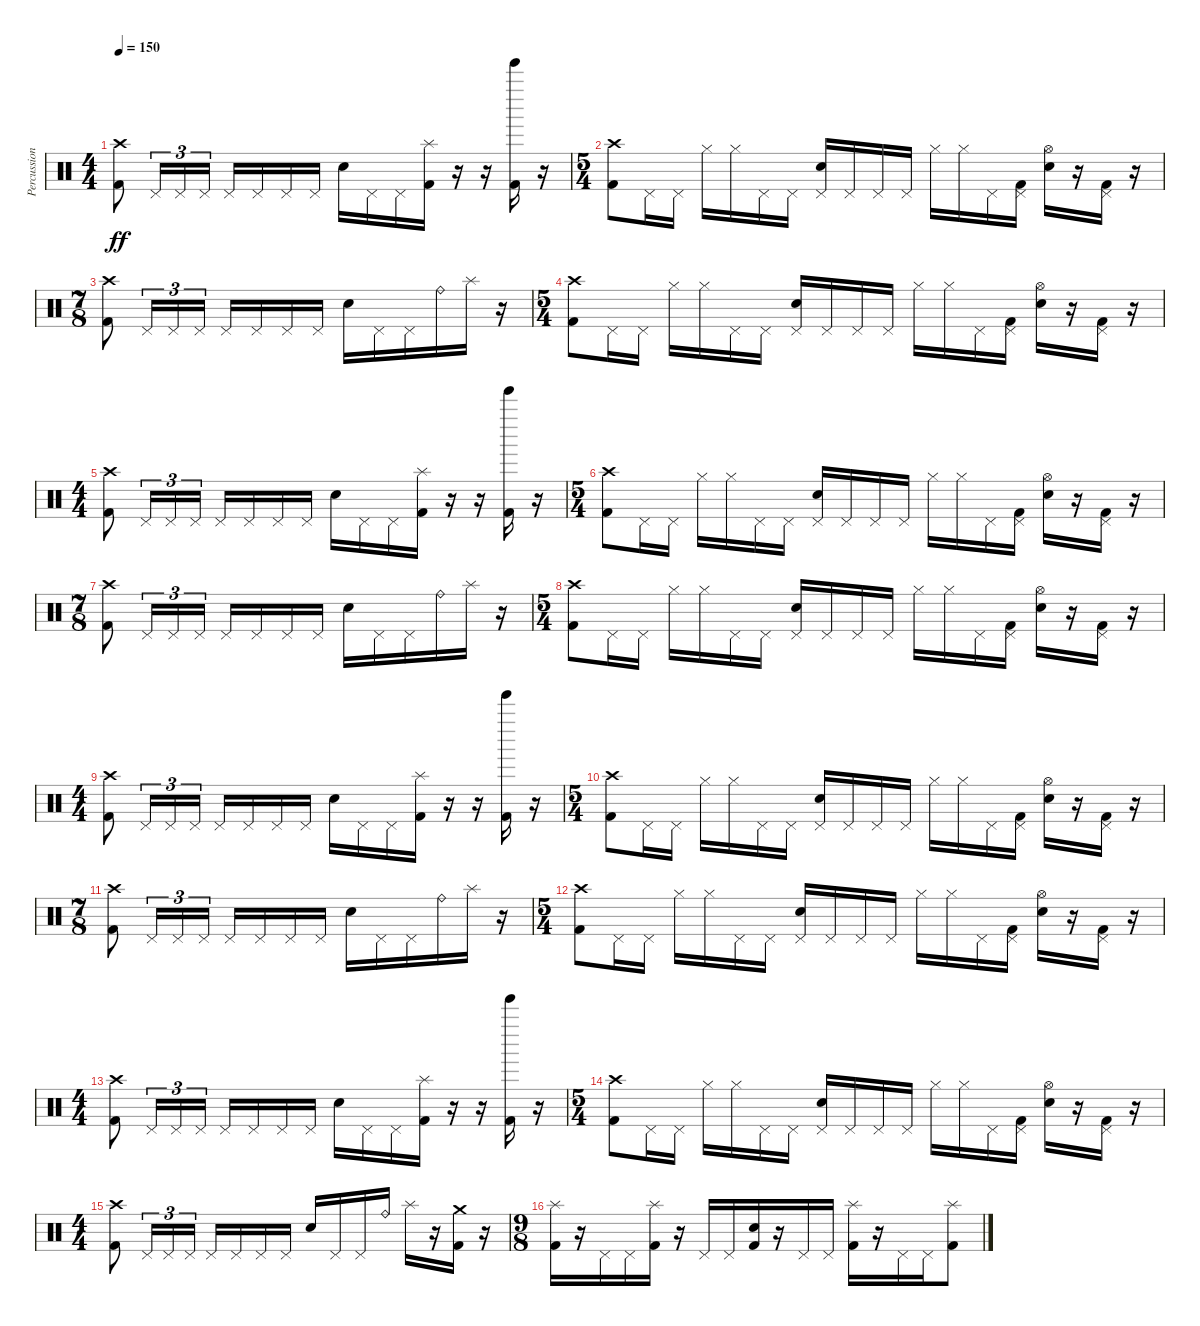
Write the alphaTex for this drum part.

\track ("Percussion" "Percussion") {instrument percussion}
\staff {score}
\articulation defaults
\ts (4 4)
\tempo 150
\clef neutral
\ks c
("Crash high (hit)" "Kick (hit) 2").8{dy ff} "Pedal Hi-Hat (hit)".16{tu (3 2)} "Pedal Hi-Hat (hit)".16{tu (3 2)} "Pedal Hi-Hat (hit)".16{tu (3 2)} "Pedal Hi-Hat (hit)".16 "Pedal Hi-Hat (hit)".16 "Pedal Hi-Hat (hit)".16 "Pedal Hi-Hat (hit)".16 "Electric Snare (hit)".16 "Pedal Hi-Hat (hit)".16 "Pedal Hi-Hat (hit)".16 ("Splash (hit)" "Kick (hit) 2").16 r.16 r.16 ("Tinkle Bell (hit)" "Kick (hit) 2").16 r.16 |
\ts (5 4)
("Crash high (hit)" "Kick (hit) 2").8 "Pedal Hi-Hat (hit)".16 "Pedal Hi-Hat (hit)".16 "Hi-Hat (closed)".16 "Hi-Hat (closed)".16 "Pedal Hi-Hat (hit)".16 "Pedal Hi-Hat (hit)".16 ("Pedal Hi-Hat (hit)" "Electric Snare (hit)").16 "Pedal Hi-Hat (hit)".16 "Pedal Hi-Hat (hit)".16 "Pedal Hi-Hat (hit)".16 "Hi-Hat (closed)".16 "Hi-Hat (closed)".16 "Pedal Hi-Hat (hit)".16 ("Pedal Hi-Hat (hit)" "Kick (hit) 2").16 ("Hi-Hat (open)" "Electric Snare (hit)").16 r.16 ("Pedal Hi-Hat (hit)" "Kick (hit) 2").16 r.16 |
\ts (7 8)
("Crash high (hit)" "Kick (hit) 2").8 "Pedal Hi-Hat (hit)".16{tu (3 2)} "Pedal Hi-Hat (hit)".16{tu (3 2)} "Pedal Hi-Hat (hit)".16{tu (3 2)} "Pedal Hi-Hat (hit)".16 "Pedal Hi-Hat (hit)".16 "Pedal Hi-Hat (hit)".16 "Pedal Hi-Hat (hit)".16 "Electric Snare (hit)".16 "Pedal Hi-Hat (hit)".16 "Pedal Hi-Hat (hit)".16 "Ride (bell)".16 "Splash (hit)".16 r.16 |
\ts (5 4)
("Crash high (hit)" "Kick (hit) 2").8 "Pedal Hi-Hat (hit)".16 "Pedal Hi-Hat (hit)".16 "Hi-Hat (closed)".16 "Hi-Hat (closed)".16 "Pedal Hi-Hat (hit)".16 "Pedal Hi-Hat (hit)".16 ("Pedal Hi-Hat (hit)" "Electric Snare (hit)").16 "Pedal Hi-Hat (hit)".16 "Pedal Hi-Hat (hit)".16 "Pedal Hi-Hat (hit)".16 "Hi-Hat (closed)".16 "Hi-Hat (closed)".16 "Pedal Hi-Hat (hit)".16 ("Pedal Hi-Hat (hit)" "Kick (hit) 2").16 ("Hi-Hat (open)" "Electric Snare (hit)").16 r.16 ("Pedal Hi-Hat (hit)" "Kick (hit) 2").16 r.16 |
\ts (4 4)
("Crash high (hit)" "Kick (hit) 2").8 "Pedal Hi-Hat (hit)".16{tu (3 2)} "Pedal Hi-Hat (hit)".16{tu (3 2)} "Pedal Hi-Hat (hit)".16{tu (3 2)} "Pedal Hi-Hat (hit)".16 "Pedal Hi-Hat (hit)".16 "Pedal Hi-Hat (hit)".16 "Pedal Hi-Hat (hit)".16 "Electric Snare (hit)".16 "Pedal Hi-Hat (hit)".16 "Pedal Hi-Hat (hit)".16 ("Splash (hit)" "Kick (hit) 2").16 r.16 r.16 ("Tinkle Bell (hit)" "Kick (hit) 2").16 r.16 |
\ts (5 4)
("Crash high (hit)" "Kick (hit) 2").8 "Pedal Hi-Hat (hit)".16 "Pedal Hi-Hat (hit)".16 "Hi-Hat (closed)".16 "Hi-Hat (closed)".16 "Pedal Hi-Hat (hit)".16 "Pedal Hi-Hat (hit)".16 ("Pedal Hi-Hat (hit)" "Electric Snare (hit)").16 "Pedal Hi-Hat (hit)".16 "Pedal Hi-Hat (hit)".16 "Pedal Hi-Hat (hit)".16 "Hi-Hat (closed)".16 "Hi-Hat (closed)".16 "Pedal Hi-Hat (hit)".16 ("Pedal Hi-Hat (hit)" "Kick (hit) 2").16 ("Hi-Hat (open)" "Electric Snare (hit)").16 r.16 ("Pedal Hi-Hat (hit)" "Kick (hit) 2").16 r.16 |
\ts (7 8)
("Crash high (hit)" "Kick (hit) 2").8 "Pedal Hi-Hat (hit)".16{tu (3 2)} "Pedal Hi-Hat (hit)".16{tu (3 2)} "Pedal Hi-Hat (hit)".16{tu (3 2)} "Pedal Hi-Hat (hit)".16 "Pedal Hi-Hat (hit)".16 "Pedal Hi-Hat (hit)".16 "Pedal Hi-Hat (hit)".16 "Electric Snare (hit)".16 "Pedal Hi-Hat (hit)".16 "Pedal Hi-Hat (hit)".16 "Ride (bell)".16 "Splash (hit)".16 r.16 |
\ts (5 4)
("Crash high (hit)" "Kick (hit) 2").8 "Pedal Hi-Hat (hit)".16 "Pedal Hi-Hat (hit)".16 "Hi-Hat (closed)".16 "Hi-Hat (closed)".16 "Pedal Hi-Hat (hit)".16 "Pedal Hi-Hat (hit)".16 ("Pedal Hi-Hat (hit)" "Electric Snare (hit)").16 "Pedal Hi-Hat (hit)".16 "Pedal Hi-Hat (hit)".16 "Pedal Hi-Hat (hit)".16 "Hi-Hat (closed)".16 "Hi-Hat (closed)".16 "Pedal Hi-Hat (hit)".16 ("Pedal Hi-Hat (hit)" "Kick (hit) 2").16 ("Hi-Hat (open)" "Electric Snare (hit)").16 r.16 ("Pedal Hi-Hat (hit)" "Kick (hit) 2").16 r.16 |
\ts (4 4)
("Crash high (hit)" "Kick (hit) 2").8 "Pedal Hi-Hat (hit)".16{tu (3 2)} "Pedal Hi-Hat (hit)".16{tu (3 2)} "Pedal Hi-Hat (hit)".16{tu (3 2)} "Pedal Hi-Hat (hit)".16 "Pedal Hi-Hat (hit)".16 "Pedal Hi-Hat (hit)".16 "Pedal Hi-Hat (hit)".16 "Electric Snare (hit)".16 "Pedal Hi-Hat (hit)".16 "Pedal Hi-Hat (hit)".16 ("Splash (hit)" "Kick (hit) 2").16 r.16 r.16 ("Tinkle Bell (hit)" "Kick (hit) 2").16 r.16 |
\ts (5 4)
("Crash high (hit)" "Kick (hit) 2").8 "Pedal Hi-Hat (hit)".16 "Pedal Hi-Hat (hit)".16 "Hi-Hat (closed)".16 "Hi-Hat (closed)".16 "Pedal Hi-Hat (hit)".16 "Pedal Hi-Hat (hit)".16 ("Pedal Hi-Hat (hit)" "Electric Snare (hit)").16 "Pedal Hi-Hat (hit)".16 "Pedal Hi-Hat (hit)".16 "Pedal Hi-Hat (hit)".16 "Hi-Hat (closed)".16 "Hi-Hat (closed)".16 "Pedal Hi-Hat (hit)".16 ("Pedal Hi-Hat (hit)" "Kick (hit) 2").16 ("Hi-Hat (open)" "Electric Snare (hit)").16 r.16 ("Pedal Hi-Hat (hit)" "Kick (hit) 2").16 r.16 |
\ts (7 8)
("Crash high (hit)" "Kick (hit) 2").8 "Pedal Hi-Hat (hit)".16{tu (3 2)} "Pedal Hi-Hat (hit)".16{tu (3 2)} "Pedal Hi-Hat (hit)".16{tu (3 2)} "Pedal Hi-Hat (hit)".16 "Pedal Hi-Hat (hit)".16 "Pedal Hi-Hat (hit)".16 "Pedal Hi-Hat (hit)".16 "Electric Snare (hit)".16 "Pedal Hi-Hat (hit)".16 "Pedal Hi-Hat (hit)".16 "Ride (bell)".16 "Splash (hit)".16 r.16 |
\ts (5 4)
("Crash high (hit)" "Kick (hit) 2").8 "Pedal Hi-Hat (hit)".16 "Pedal Hi-Hat (hit)".16 "Hi-Hat (closed)".16 "Hi-Hat (closed)".16 "Pedal Hi-Hat (hit)".16 "Pedal Hi-Hat (hit)".16 ("Pedal Hi-Hat (hit)" "Electric Snare (hit)").16 "Pedal Hi-Hat (hit)".16 "Pedal Hi-Hat (hit)".16 "Pedal Hi-Hat (hit)".16 "Hi-Hat (closed)".16 "Hi-Hat (closed)".16 "Pedal Hi-Hat (hit)".16 ("Pedal Hi-Hat (hit)" "Kick (hit) 2").16 ("Hi-Hat (open)" "Electric Snare (hit)").16 r.16 ("Pedal Hi-Hat (hit)" "Kick (hit) 2").16 r.16 |
\ts (4 4)
("Crash high (hit)" "Kick (hit) 2").8 "Pedal Hi-Hat (hit)".16{tu (3 2)} "Pedal Hi-Hat (hit)".16{tu (3 2)} "Pedal Hi-Hat (hit)".16{tu (3 2)} "Pedal Hi-Hat (hit)".16 "Pedal Hi-Hat (hit)".16 "Pedal Hi-Hat (hit)".16 "Pedal Hi-Hat (hit)".16 "Electric Snare (hit)".16 "Pedal Hi-Hat (hit)".16 "Pedal Hi-Hat (hit)".16 ("Splash (hit)" "Kick (hit) 2").16 r.16 r.16 ("Tinkle Bell (hit)" "Kick (hit) 2").16 r.16 |
\ts (5 4)
("Crash high (hit)" "Kick (hit) 2").8 "Pedal Hi-Hat (hit)".16 "Pedal Hi-Hat (hit)".16 "Hi-Hat (closed)".16 "Hi-Hat (closed)".16 "Pedal Hi-Hat (hit)".16 "Pedal Hi-Hat (hit)".16 ("Pedal Hi-Hat (hit)" "Electric Snare (hit)").16 "Pedal Hi-Hat (hit)".16 "Pedal Hi-Hat (hit)".16 "Pedal Hi-Hat (hit)".16 "Hi-Hat (closed)".16 "Hi-Hat (closed)".16 "Pedal Hi-Hat (hit)".16 ("Pedal Hi-Hat (hit)" "Kick (hit) 2").16 ("Hi-Hat (open)" "Electric Snare (hit)").16 r.16 ("Pedal Hi-Hat (hit)" "Kick (hit) 2").16 r.16 |
\ts (4 4)
("Crash high (hit)" "Kick (hit) 2").8 "Pedal Hi-Hat (hit)".16{tu (3 2)} "Pedal Hi-Hat (hit)".16{tu (3 2)} "Pedal Hi-Hat (hit)".16{tu (3 2)} "Pedal Hi-Hat (hit)".16 "Pedal Hi-Hat (hit)".16 "Pedal Hi-Hat (hit)".16 "Pedal Hi-Hat (hit)".16 "Electric Snare (hit)".16 "Pedal Hi-Hat (hit)".16 "Pedal Hi-Hat (hit)".16 "Ride (bell)".16 "Splash (hit)".16 r.16 ("Crash medium (hit)" "Kick (hit) 2").16 r.16 |
\ts (9 8)
("Splash (hit)" "Kick (hit) 2").16 r.16 "Pedal Hi-Hat (hit)".16 "Pedal Hi-Hat (hit)".16 ("Splash (hit)" "Kick (hit) 2").16 r.16 "Pedal Hi-Hat (hit)".16 "Pedal Hi-Hat (hit)".16 ("Electric Snare (hit)" "Kick (hit) 2").16 r.16 "Pedal Hi-Hat (hit)".16 "Pedal Hi-Hat (hit)".16 ("Splash (hit)" "Kick (hit) 2").16 r.16 "Pedal Hi-Hat (hit)".16 "Pedal Hi-Hat (hit)".16 ("Splash (hit)" "Kick (hit) 2").8
